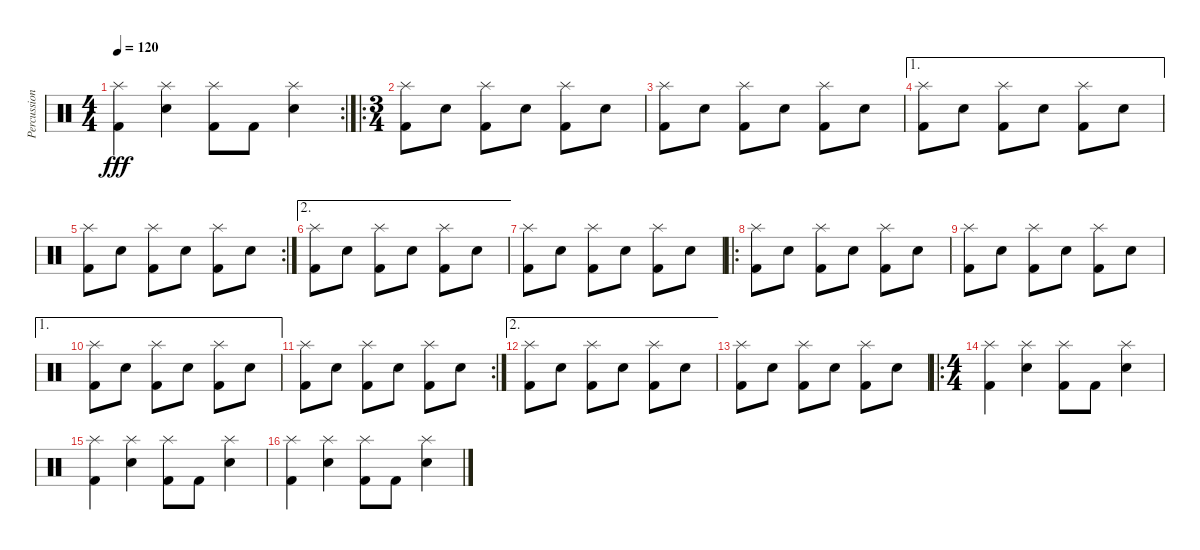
\track ("Percussion" "Percussion") {instrument percussion}
\staff {score}
\articulation defaults
\rc 2
\ts (4 4)
\tempo 120
\clef neutral
\ks c
("Splash (hit)" "Kick (hit) 2").4{dy fff} ("Splash (hit)" "Electric Snare (hit)").4 ("Splash (hit)" "Kick (hit) 2").8 "Kick (hit) 2".8 ("Splash (hit)" "Electric Snare (hit)").4 |
\ro
\ts (3 4)
("Splash (hit)" "Kick (hit) 2").8 "Electric Snare (hit)".8 ("Splash (hit)" "Kick (hit) 2").8 "Electric Snare (hit)".8 ("Splash (hit)" "Kick (hit) 2").8 "Electric Snare (hit)".8 |
("Splash (hit)" "Kick (hit) 2").8 "Electric Snare (hit)".8 ("Splash (hit)" "Kick (hit) 2").8 "Electric Snare (hit)".8 ("Splash (hit)" "Kick (hit) 2").8 "Electric Snare (hit)".8 |
\ae 1
("Splash (hit)" "Kick (hit) 2").8 "Electric Snare (hit)".8 ("Splash (hit)" "Kick (hit) 2").8 "Electric Snare (hit)".8 ("Splash (hit)" "Kick (hit) 2").8 "Electric Snare (hit)".8 |
\rc 2
("Splash (hit)" "Kick (hit) 2").8 "Electric Snare (hit)".8 ("Splash (hit)" "Kick (hit) 2").8 "Electric Snare (hit)".8 ("Splash (hit)" "Kick (hit) 2").8 "Electric Snare (hit)".8 |
\ae 2
("Splash (hit)" "Kick (hit) 2").8 "Electric Snare (hit)".8 ("Splash (hit)" "Kick (hit) 2").8 "Electric Snare (hit)".8 ("Splash (hit)" "Kick (hit) 2").8 "Electric Snare (hit)".8 |
("Splash (hit)" "Kick (hit) 2").8 "Electric Snare (hit)".8 ("Splash (hit)" "Kick (hit) 2").8 "Electric Snare (hit)".8 ("Splash (hit)" "Kick (hit) 2").8 "Electric Snare (hit)".8 |
\ro
("Splash (hit)" "Kick (hit) 2").8 "Electric Snare (hit)".8 ("Splash (hit)" "Kick (hit) 2").8 "Electric Snare (hit)".8 ("Splash (hit)" "Kick (hit) 2").8 "Electric Snare (hit)".8 |
("Splash (hit)" "Kick (hit) 2").8 "Electric Snare (hit)".8 ("Splash (hit)" "Kick (hit) 2").8 "Electric Snare (hit)".8 ("Splash (hit)" "Kick (hit) 2").8 "Electric Snare (hit)".8 |
\ae 1
("Splash (hit)" "Kick (hit) 2").8 "Electric Snare (hit)".8 ("Splash (hit)" "Kick (hit) 2").8 "Electric Snare (hit)".8 ("Splash (hit)" "Kick (hit) 2").8 "Electric Snare (hit)".8 |
\rc 2
("Splash (hit)" "Kick (hit) 2").8 "Electric Snare (hit)".8 ("Splash (hit)" "Kick (hit) 2").8 "Electric Snare (hit)".8 ("Splash (hit)" "Kick (hit) 2").8 "Electric Snare (hit)".8 |
\ae 2
("Splash (hit)" "Kick (hit) 2").8 "Electric Snare (hit)".8 ("Splash (hit)" "Kick (hit) 2").8 "Electric Snare (hit)".8 ("Splash (hit)" "Kick (hit) 2").8 "Electric Snare (hit)".8 |
("Splash (hit)" "Kick (hit) 2").8 "Electric Snare (hit)".8 ("Splash (hit)" "Kick (hit) 2").8 "Electric Snare (hit)".8 ("Splash (hit)" "Kick (hit) 2").8 "Electric Snare (hit)".8 |
\ro
\ts (4 4)
("Splash (hit)" "Kick (hit) 2").4 ("Splash (hit)" "Electric Snare (hit)").4 ("Splash (hit)" "Kick (hit) 2").8 "Kick (hit) 2".8 ("Splash (hit)" "Electric Snare (hit)").4 |
("Splash (hit)" "Kick (hit) 2").4 ("Splash (hit)" "Electric Snare (hit)").4 ("Splash (hit)" "Kick (hit) 2").8 "Kick (hit) 2".8 ("Splash (hit)" "Electric Snare (hit)").4 |
("Splash (hit)" "Kick (hit) 2").4 ("Splash (hit)" "Electric Snare (hit)").4 ("Splash (hit)" "Kick (hit) 2").8 "Kick (hit) 2".8 ("Splash (hit)" "Electric Snare (hit)").4
